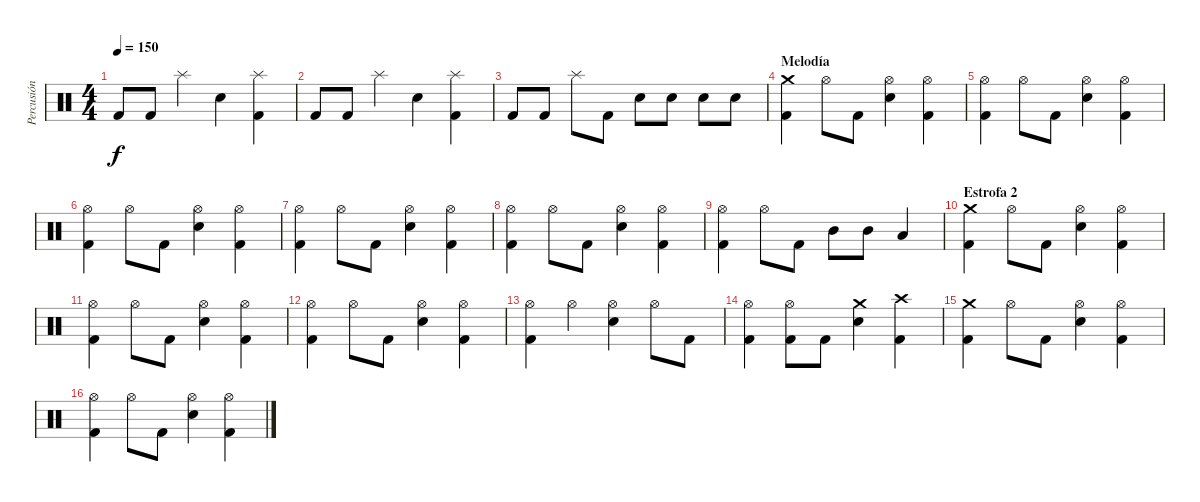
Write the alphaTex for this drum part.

\track ("Percusión" "Percusión") {instrument percussion}
\staff {score}
\articulation defaults
\ts (4 4)
\tempo 150
\clef neutral
\ks c "Kick (hit) 2".8{dy f} "Kick (hit) 2".8 "Splash (hit)".4 "Snare (hit) 2".4
("Splash (hit)" "Kick (hit) 2").4 |
"Kick (hit) 2".8 "Kick (hit) 2".8 "Splash (hit)".4 "Snare (hit) 2".4 ("Splash (hit)" "Kick (hit) 2").4 |
"Kick (hit) 2".8 "Kick (hit) 2".8 "Splash (hit)".8 "Kick (hit) 2".8 "Snare (hit) 2".8 "Snare (hit) 2".8 "Snare (hit) 2".8 "Snare (hit) 2".8 |
\section ("" "Melodía")
("Crash medium (hit)" "Kick (hit) 2").4 "Hi-Hat (open)".8 "Kick (hit) 2".8 ("Hi-Hat (open)" "Snare (hit) 2").4 ("Hi-Hat (open)" "Kick (hit) 2").4 |
("Hi-Hat (open)" "Kick (hit) 2").4 "Hi-Hat (open)".8 "Kick (hit) 2".8 ("Hi-Hat (open)" "Snare (hit) 2").4 ("Hi-Hat (open)" "Kick (hit) 2").4 |
("Hi-Hat (open)" "Kick (hit) 2").4 "Hi-Hat (open)".8 "Kick (hit) 2".8 ("Hi-Hat (open)" "Snare (hit) 2").4 ("Hi-Hat (open)" "Kick (hit) 2").4 |
("Hi-Hat (open)" "Kick (hit) 2").4 "Hi-Hat (open)".8 "Kick (hit) 2".8 ("Hi-Hat (open)" "Snare (hit) 2").4 ("Hi-Hat (open)" "Kick (hit) 2").4 |
("Hi-Hat (open)" "Kick (hit) 2").4 "Hi-Hat (open)".8 "Kick (hit) 2".8 ("Hi-Hat (open)" "Snare (hit) 2").4 ("Hi-Hat (open)" "Kick (hit) 2").4 |
("Hi-Hat (open)" "Kick (hit) 2").4 "Hi-Hat (open)".8 "Kick (hit) 2".8 "Mid Tom (hit)".8 "Mid Tom (hit)".8 "Low Tom (hit)".4 |
\section ("" "Estrofa 2")
("Crash medium (hit)" "Kick (hit) 2").4 "Hi-Hat (open)".8 "Kick (hit) 2".8 ("Hi-Hat (open)" "Snare (hit) 2").4 ("Hi-Hat (open)" "Kick (hit) 2").4 |
("Hi-Hat (open)" "Kick (hit) 2").4 "Hi-Hat (open)".8 "Kick (hit) 2".8 ("Hi-Hat (open)" "Snare (hit) 2").4 ("Hi-Hat (open)" "Kick (hit) 2").4 |
("Hi-Hat (open)" "Kick (hit) 2").4 "Hi-Hat (open)".8 "Kick (hit) 2".8 ("Hi-Hat (open)" "Snare (hit) 2").4 ("Hi-Hat (open)" "Kick (hit) 2").4 |
("Hi-Hat (open)" "Kick (hit) 2").4 "Hi-Hat (open)".4 ("Hi-Hat (open)" "Snare (hit) 2").4 "Hi-Hat (open)".8 "Kick (hit) 2".8 |
("Hi-Hat (open)" "Kick (hit) 2").4 ("Hi-Hat (open)" "Kick (hit) 2").8 "Kick (hit) 2".8 ("Crash medium (hit)" "Snare (hit) 2").4 ("Crash high (hit)" "Kick (hit) 2").4 |
("Crash medium (hit)" "Kick (hit) 2").4 "Hi-Hat (open)".8 "Kick (hit) 2".8 ("Hi-Hat (open)" "Snare (hit) 2").4 ("Hi-Hat (open)" "Kick (hit) 2").4 |
("Hi-Hat (open)" "Kick (hit) 2").4 "Hi-Hat (open)".8 "Kick (hit) 2".8 ("Hi-Hat (open)" "Snare (hit) 2").4 ("Hi-Hat (open)" "Kick (hit) 2").4
